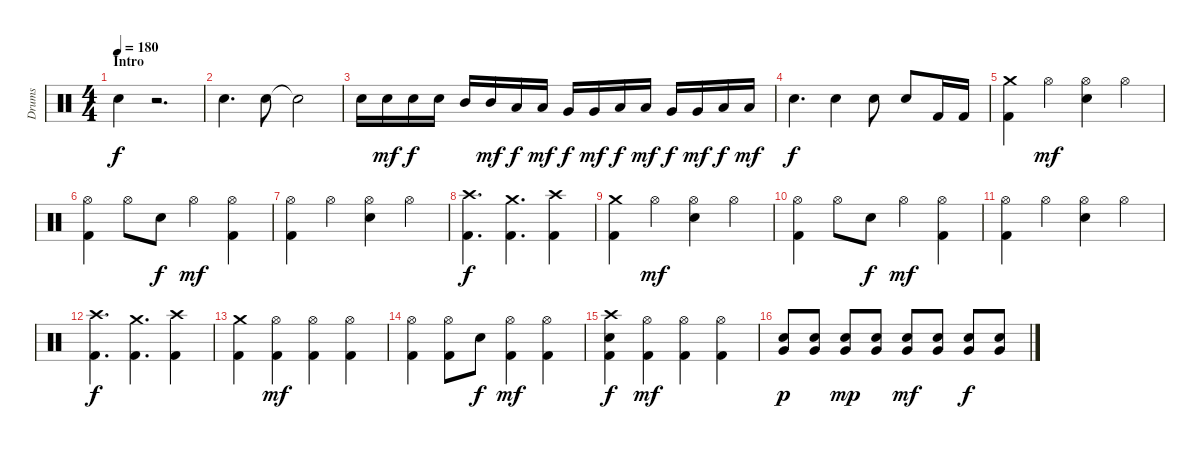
\track ("Drums" "Drums") {instrument percussion}
\staff {score}
\articulation defaults
\ts (4 4)
\section ("" "Intro")
\tempo 180
\clef neutral
\ks c "Electric Snare (hit)".4{dy f}
r.2{d} |
"Electric Snare (hit)".4{d} "Electric Snare (hit)".8 "Snare (hit)"{t}.2 |
"Electric Snare (hit)".16 "Electric Snare (hit)".16{dy mf} "Electric Snare (hit)".16{dy f} "Electric Snare (hit)".16 "Mid Tom (hit)".16 "Mid Tom (hit)".16{dy mf} "Low Tom (hit)".16{dy f} "Low Tom (hit)".16{dy mf} "Very Low Tom (hit)".16{dy f} "Very Low Tom (hit)".16{dy mf} "Low Tom (hit)".16{dy f} "Low Tom (hit)".16{dy mf} "Very Low Tom (hit)".16{dy f} "Very Low Tom (hit)".16{dy mf} "Low Floor Tom (hit)".16{dy f} "Low Floor Tom (hit)".16{dy mf} |
"Electric Snare (hit)".4{d dy f} "Electric Snare (hit)".4 "Electric Snare (hit)".8 "Electric Snare (hit)".8 "Kick (hit) 2".16 "Kick (hit) 2".16 |
("Kick (hit) 2" "Crash medium (hit)").4 "Hi-Hat (open)".4{dy mf} ("Hi-Hat (open)" "Electric Snare (hit)").4 "Hi-Hat (open)".4 |
("Kick (hit) 2" "Hi-Hat (open)").4 "Hi-Hat (open)".8 "Electric Snare (hit)".8{dy f} "Hi-Hat (open)".4{dy mf} ("Kick (hit) 2" "Hi-Hat (open)").4 |
("Kick (hit) 2" "Hi-Hat (open)").4 "Hi-Hat (open)".4 ("Hi-Hat (open)" "Electric Snare (hit)").4 "Hi-Hat (open)".4 |
("Kick (hit) 2" "Crash high (hit)").4{d dy f} ("Kick (hit) 2" "Crash medium (hit)").4{d} ("Kick (hit) 2" "Crash high (hit)").4 |
("Kick (hit) 2" "Crash medium (hit)").4 "Hi-Hat (open)".4{dy mf} ("Hi-Hat (open)" "Electric Snare (hit)").4 "Hi-Hat (open)".4 |
("Kick (hit) 2" "Hi-Hat (open)").4 "Hi-Hat (open)".8 "Electric Snare (hit)".8{dy f} "Hi-Hat (open)".4{dy mf} ("Kick (hit) 2" "Hi-Hat (open)").4 |
("Kick (hit) 2" "Hi-Hat (open)").4 "Hi-Hat (open)".4 ("Hi-Hat (open)" "Electric Snare (hit)").4 "Hi-Hat (open)".4 |
("Kick (hit) 2" "Crash high (hit)").4{d dy f} ("Kick (hit) 2" "Crash medium (hit)").4{d} ("Kick (hit) 2" "Crash high (hit)").4 |
("Kick (hit) 2" "Crash medium (hit)").4 ("Kick (hit) 2" "Hi-Hat (open)").4{dy mf} ("Kick (hit) 2" "Hi-Hat (open)").4 ("Kick (hit) 2" "Hi-Hat (open)").4 |
("Kick (hit) 2" "Hi-Hat (open)").4 ("Kick (hit) 2" "Hi-Hat (open)").8 "Electric Snare (hit)".8{dy f} ("Kick (hit) 2" "Hi-Hat (open)").4{dy mf} ("Kick (hit) 2" "Hi-Hat (open)").4 |
("Kick (hit) 2" "Crash high (hit)" "Electric Snare (hit)").4{dy f} ("Kick (hit) 2" "Hi-Hat (open)").4{dy mf} ("Kick (hit) 2" "Hi-Hat (open)").4 ("Kick (hit) 2" "Hi-Hat (open)").4 |
("Very Low Tom (hit)" "Electric Snare (hit)").8{dy p} ("Very Low Tom (hit)" "Electric Snare (hit)").8 ("Very Low Tom (hit)" "Electric Snare (hit)").8{dy mp} ("Very Low Tom (hit)" "Electric Snare (hit)").8 ("Very Low Tom (hit)" "Electric Snare (hit)").8{dy mf} ("Very Low Tom (hit)" "Electric Snare (hit)").8 ("Very Low Tom (hit)" "Electric Snare (hit)").8{dy f} ("Very Low Tom (hit)" "Electric Snare (hit)").8
